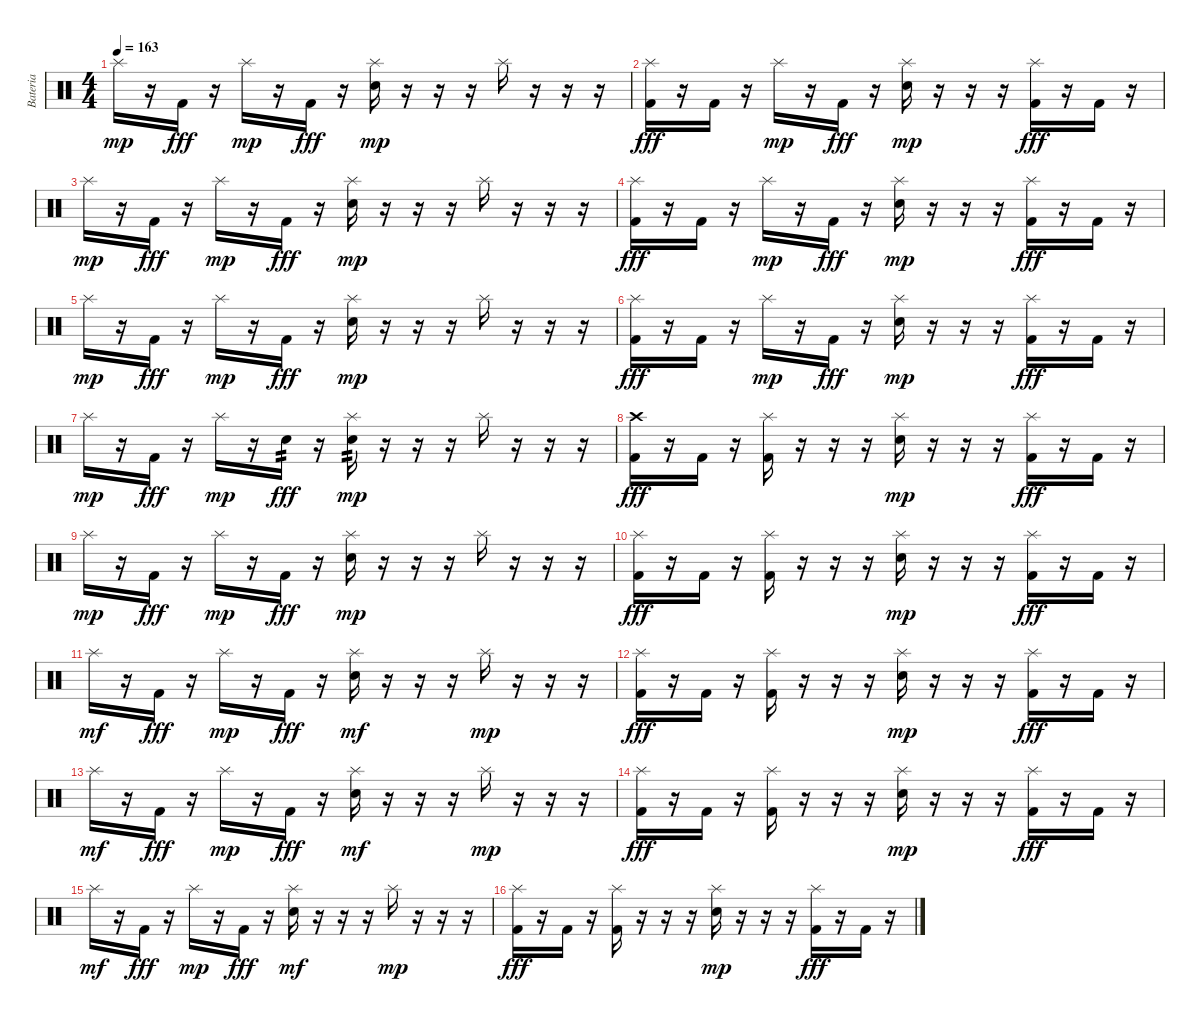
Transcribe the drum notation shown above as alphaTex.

\track ("Bateria" "Bateria") {instrument percussion}
\staff {score}
\articulation defaults
\ts (4 4)
\tempo 163
\clef neutral
\ks c "Splash (hit)".16{dy mp}
r.16 "Kick (hit) 2".16{dy fff} r.16 "Splash (hit)".16{dy mp} r.16 "Kick (hit) 2".16{dy fff} r.16 ("Splash (hit)" "Electric Snare (hit)").16{dy mp} r.16 r.16 r.16 "Splash (hit)".16 r.16 r.16 r.16 |
("Splash (hit)" "Kick (hit) 2").16{dy fff} r.16 "Kick (hit) 2".16 r.16 "Splash (hit)".16{dy mp} r.16 "Kick (hit) 2".16{dy fff} r.16 ("Splash (hit)" "Electric Snare (hit)").16{dy mp} r.16 r.16 r.16 ("Splash (hit)" "Kick (hit) 2").16{dy fff} r.16 "Kick (hit) 2".16 r.16 |
"Splash (hit)".16{dy mp} r.16 "Kick (hit) 2".16{dy fff} r.16 "Splash (hit)".16{dy mp} r.16 "Kick (hit) 2".16{dy fff} r.16 ("Splash (hit)" "Electric Snare (hit)").16{dy mp} r.16 r.16 r.16 "Splash (hit)".16 r.16 r.16 r.16 |
("Splash (hit)" "Kick (hit) 2").16{dy fff} r.16 "Kick (hit) 2".16 r.16 "Splash (hit)".16{dy mp} r.16 "Kick (hit) 2".16{dy fff} r.16 ("Splash (hit)" "Electric Snare (hit)").16{dy mp} r.16 r.16 r.16 ("Splash (hit)" "Kick (hit) 2").16{dy fff} r.16 "Kick (hit) 2".16 r.16 |
"Splash (hit)".16{dy mp} r.16 "Kick (hit) 2".16{dy fff} r.16 "Splash (hit)".16{dy mp} r.16 "Kick (hit) 2".16{dy fff} r.16 ("Splash (hit)" "Electric Snare (hit)").16{dy mp} r.16 r.16 r.16 "Splash (hit)".16 r.16 r.16 r.16 |
("Splash (hit)" "Kick (hit) 2").16{dy fff} r.16 "Kick (hit) 2".16 r.16 "Splash (hit)".16{dy mp} r.16 "Kick (hit) 2".16{dy fff} r.16 ("Splash (hit)" "Electric Snare (hit)").16{dy mp} r.16 r.16 r.16 ("Splash (hit)" "Kick (hit) 2").16{dy fff} r.16 "Kick (hit) 2".16 r.16 |
"Splash (hit)".16{dy mp} r.16 "Kick (hit) 2".16{dy fff} r.16 "Splash (hit)".16{dy mp} r.16 "Electric Snare (hit)".16{tp 2 dy fff} r.16 ("Splash (hit)" "Electric Snare (hit)").16{tp 2 dy mp} r.16 r.16 r.16 "Splash (hit)".16 r.16 r.16 r.16 |
("Crash high (hit)" "Kick (hit) 2").16{dy fff} r.16 "Kick (hit) 2".16 r.16 ("Splash (hit)" "Kick (hit) 2").16 r.16 r.16 r.16 ("Splash (hit)" "Electric Snare (hit)").16{dy mp} r.16 r.16 r.16 ("Splash (hit)" "Kick (hit) 2").16{dy fff} r.16 "Kick (hit) 2".16 r.16 |
"Splash (hit)".16{dy mp} r.16 "Kick (hit) 2".16{dy fff} r.16 "Splash (hit)".16{dy mp} r.16 "Kick (hit) 2".16{dy fff} r.16 ("Splash (hit)" "Electric Snare (hit)").16{dy mp} r.16 r.16 r.16 "Splash (hit)".16 r.16 r.16 r.16 |
("Splash (hit)" "Kick (hit) 2").16{dy fff} r.16 "Kick (hit) 2".16 r.16 ("Splash (hit)" "Kick (hit) 2").16 r.16 r.16 r.16 ("Splash (hit)" "Electric Snare (hit)").16{dy mp} r.16 r.16 r.16 ("Splash (hit)" "Kick (hit) 2").16{dy fff} r.16 "Kick (hit) 2".16 r.16 |
"Splash (hit)".16{dy mf} r.16 "Kick (hit) 2".16{dy fff} r.16 "Splash (hit)".16{dy mp} r.16 "Kick (hit) 2".16{dy fff} r.16 ("Splash (hit)" "Electric Snare (hit)").16{dy mf} r.16 r.16 r.16 "Splash (hit)".16{dy mp} r.16 r.16 r.16 |
("Splash (hit)" "Kick (hit) 2").16{dy fff} r.16 "Kick (hit) 2".16 r.16 ("Splash (hit)" "Kick (hit) 2").16 r.16 r.16 r.16 ("Splash (hit)" "Electric Snare (hit)").16{dy mp} r.16 r.16 r.16 ("Splash (hit)" "Kick (hit) 2").16{dy fff} r.16 "Kick (hit) 2".16 r.16 |
"Splash (hit)".16{dy mf} r.16 "Kick (hit) 2".16{dy fff} r.16 "Splash (hit)".16{dy mp} r.16 "Kick (hit) 2".16{dy fff} r.16 ("Splash (hit)" "Electric Snare (hit)").16{dy mf} r.16 r.16 r.16 "Splash (hit)".16{dy mp} r.16 r.16 r.16 |
("Splash (hit)" "Kick (hit) 2").16{dy fff} r.16 "Kick (hit) 2".16 r.16 ("Splash (hit)" "Kick (hit) 2").16 r.16 r.16 r.16 ("Splash (hit)" "Electric Snare (hit)").16{dy mp} r.16 r.16 r.16 ("Splash (hit)" "Kick (hit) 2").16{dy fff} r.16 "Kick (hit) 2".16 r.16 |
"Splash (hit)".16{dy mf} r.16 "Kick (hit) 2".16{dy fff} r.16 "Splash (hit)".16{dy mp} r.16 "Kick (hit) 2".16{dy fff} r.16 ("Splash (hit)" "Electric Snare (hit)").16{dy mf} r.16 r.16 r.16 "Splash (hit)".16{dy mp} r.16 r.16 r.16 |
("Splash (hit)" "Kick (hit) 2").16{dy fff} r.16 "Kick (hit) 2".16 r.16 ("Splash (hit)" "Kick (hit) 2").16 r.16 r.16 r.16 ("Splash (hit)" "Electric Snare (hit)").16{dy mp} r.16 r.16 r.16 ("Splash (hit)" "Kick (hit) 2").16{dy fff} r.16 "Kick (hit) 2".16 r.16
